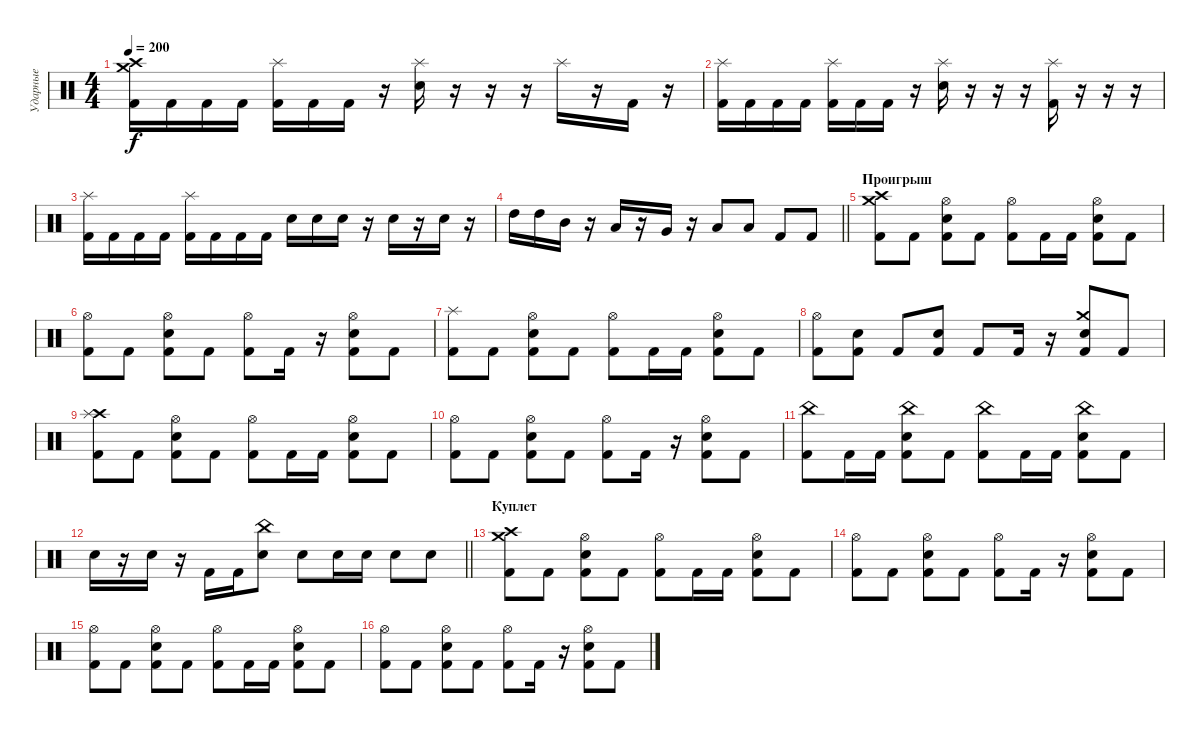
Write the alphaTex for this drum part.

\track ("Ударные" "Ударные") {instrument percussion}
\staff {score}
\articulation defaults
\ts (4 4)
\tempo 200
\clef neutral
\ks c
("Kick (hit) 2" "Crash high (hit)" "Crash medium (hit)").16{dy f} "Kick (hit) 2".16 "Kick (hit) 2".16 "Kick (hit) 2".16 ("Kick (hit) 2" "Splash (hit)").16 "Kick (hit) 2".16 "Kick (hit) 2".16 r.16 ("Electric Snare (hit)" "Splash (hit)").16 r.16 r.16 r.16 "Splash (hit)".16 r.16 "Kick (hit) 2".16 r.16 |
("Kick (hit) 2" "Splash (hit)").16 "Kick (hit) 2".16 "Kick (hit) 2".16 "Kick (hit) 2".16 ("Kick (hit) 2" "Splash (hit)").16 "Kick (hit) 2".16 "Kick (hit) 2".16 r.16 ("Electric Snare (hit)" "Splash (hit)").16 r.16 r.16 r.16 ("Kick (hit) 2" "Splash (hit)").16 r.16 r.16 r.16 |
("Kick (hit) 2" "Splash (hit)").16 "Kick (hit) 2".16 "Kick (hit) 2".16 "Kick (hit) 2".16 ("Kick (hit) 2" "Splash (hit)").16 "Kick (hit) 2".16 "Kick (hit) 2".16 "Kick (hit) 2".16 "Electric Snare (hit)".16 "Electric Snare (hit)".16 "Electric Snare (hit)".16 r.16 "Electric Snare (hit)".16 r.16 "Electric Snare (hit)".16 r.16 |
\barLineRight lightlight "High Tom (hit)".16 "High Tom (hit)".16 "Mid Tom (hit)".16
r.16 "Low Tom (hit)".16 r.16 "Very Low Tom (hit)".16 r.16 "Low Floor Tom (hit)".8 "Low Floor Tom (hit)".8 "Kick (hit) 2".8 "Kick (hit) 2".8 |
\section ("" "Проигрыш")
("Kick (hit) 2" "Crash high (hit)" "Crash medium (hit)").8 "Kick (hit) 2".8 ("Kick (hit) 2" "Electric Snare (hit)" "Hi-Hat (open)").8 "Kick (hit) 2".8 ("Kick (hit) 2" "Hi-Hat (open)").8 "Kick (hit) 2".16 "Kick (hit) 2".16 ("Kick (hit) 2" "Electric Snare (hit)" "Hi-Hat (open)").8 "Kick (hit) 2".8 |
("Kick (hit) 2" "Hi-Hat (open)").8 "Kick (hit) 2".8 ("Kick (hit) 2" "Electric Snare (hit)" "Hi-Hat (open)").8 "Kick (hit) 2".8 ("Kick (hit) 2" "Hi-Hat (open)").8 "Kick (hit) 2".16 r.16 ("Kick (hit) 2" "Electric Snare (hit)" "Hi-Hat (open)").8 "Kick (hit) 2".8 |
("Kick (hit) 2" "Splash (hit)").8 "Kick (hit) 2".8 ("Kick (hit) 2" "Electric Snare (hit)" "Hi-Hat (open)").8 "Kick (hit) 2".8 ("Kick (hit) 2" "Hi-Hat (open)").8 "Kick (hit) 2".16 "Kick (hit) 2".16 ("Kick (hit) 2" "Electric Snare (hit)" "Hi-Hat (open)").8 "Kick (hit) 2".8 |
("Kick (hit) 2" "Hi-Hat (open)").8 ("Kick (hit) 2" "Electric Snare (hit)").8 "Kick (hit) 2".8 ("Kick (hit) 2" "Electric Snare (hit)").8 "Kick (hit) 2".8 "Kick (hit) 2".16 r.16 ("Kick (hit) 2" "Electric Snare (hit)" "Crash medium (hit)").8 "Kick (hit) 2".8 |
("Kick (hit) 2" "Crash high (hit)" "Splash (hit)").8 "Kick (hit) 2".8 ("Kick (hit) 2" "Electric Snare (hit)" "Hi-Hat (open)").8 "Kick (hit) 2".8 ("Kick (hit) 2" "Hi-Hat (open)").8 "Kick (hit) 2".16 "Kick (hit) 2".16 ("Kick (hit) 2" "Electric Snare (hit)" "Hi-Hat (open)").8 "Kick (hit) 2".8 |
("Kick (hit) 2" "Hi-Hat (open)").8 "Kick (hit) 2".8 ("Kick (hit) 2" "Electric Snare (hit)" "Hi-Hat (open)").8 "Kick (hit) 2".8 ("Kick (hit) 2" "Hi-Hat (open)").8 "Kick (hit) 2".16 r.16 ("Kick (hit) 2" "Electric Snare (hit)" "Hi-Hat (open)").8 "Kick (hit) 2".8 |
("Kick (hit) 2" "China (hit)").8 "Kick (hit) 2".16 "Kick (hit) 2".16 ("Kick (hit) 2" "Electric Snare (hit)" "China (hit)").8 "Kick (hit) 2".8 ("Kick (hit) 2" "China (hit)").8 "Kick (hit) 2".16 "Kick (hit) 2".16 ("Kick (hit) 2" "Electric Snare (hit)" "China (hit)").8 "Kick (hit) 2".8 |
\barLineRight lightlight "Electric Snare (hit)".16
r.16 "Electric Snare (hit)".16 r.16 "Kick (hit) 2".16 "Kick (hit) 2".16 ("Electric Snare (hit)" "China (hit)").8 "Electric Snare (hit)".8 "Electric Snare (hit)".16 "Electric Snare (hit)".16 "Electric Snare (hit)".8 "Electric Snare (hit)".8 |
\section ("" "Куплет")
("Kick (hit) 2" "Crash high (hit)" "Crash medium (hit)").8 "Kick (hit) 2".8 ("Kick (hit) 2" "Electric Snare (hit)" "Hi-Hat (open)").8 "Kick (hit) 2".8 ("Kick (hit) 2" "Hi-Hat (open)").8 "Kick (hit) 2".16 "Kick (hit) 2".16 ("Kick (hit) 2" "Electric Snare (hit)" "Hi-Hat (open)").8 "Kick (hit) 2".8 |
("Kick (hit) 2" "Hi-Hat (open)").8 "Kick (hit) 2".8 ("Kick (hit) 2" "Electric Snare (hit)" "Hi-Hat (open)").8 "Kick (hit) 2".8 ("Kick (hit) 2" "Hi-Hat (open)").8 "Kick (hit) 2".16 r.16 ("Kick (hit) 2" "Electric Snare (hit)" "Hi-Hat (open)").8 "Kick (hit) 2".8 |
("Kick (hit) 2" "Hi-Hat (open)").8 "Kick (hit) 2".8 ("Kick (hit) 2" "Electric Snare (hit)" "Hi-Hat (open)").8 "Kick (hit) 2".8 ("Kick (hit) 2" "Hi-Hat (open)").8 "Kick (hit) 2".16 "Kick (hit) 2".16 ("Kick (hit) 2" "Electric Snare (hit)" "Hi-Hat (open)").8 "Kick (hit) 2".8 |
("Kick (hit) 2" "Hi-Hat (open)").8 "Kick (hit) 2".8 ("Kick (hit) 2" "Electric Snare (hit)" "Hi-Hat (open)").8 "Kick (hit) 2".8 ("Kick (hit) 2" "Hi-Hat (open)").8 "Kick (hit) 2".16 r.16 ("Kick (hit) 2" "Electric Snare (hit)" "Hi-Hat (open)").8 "Kick (hit) 2".8
